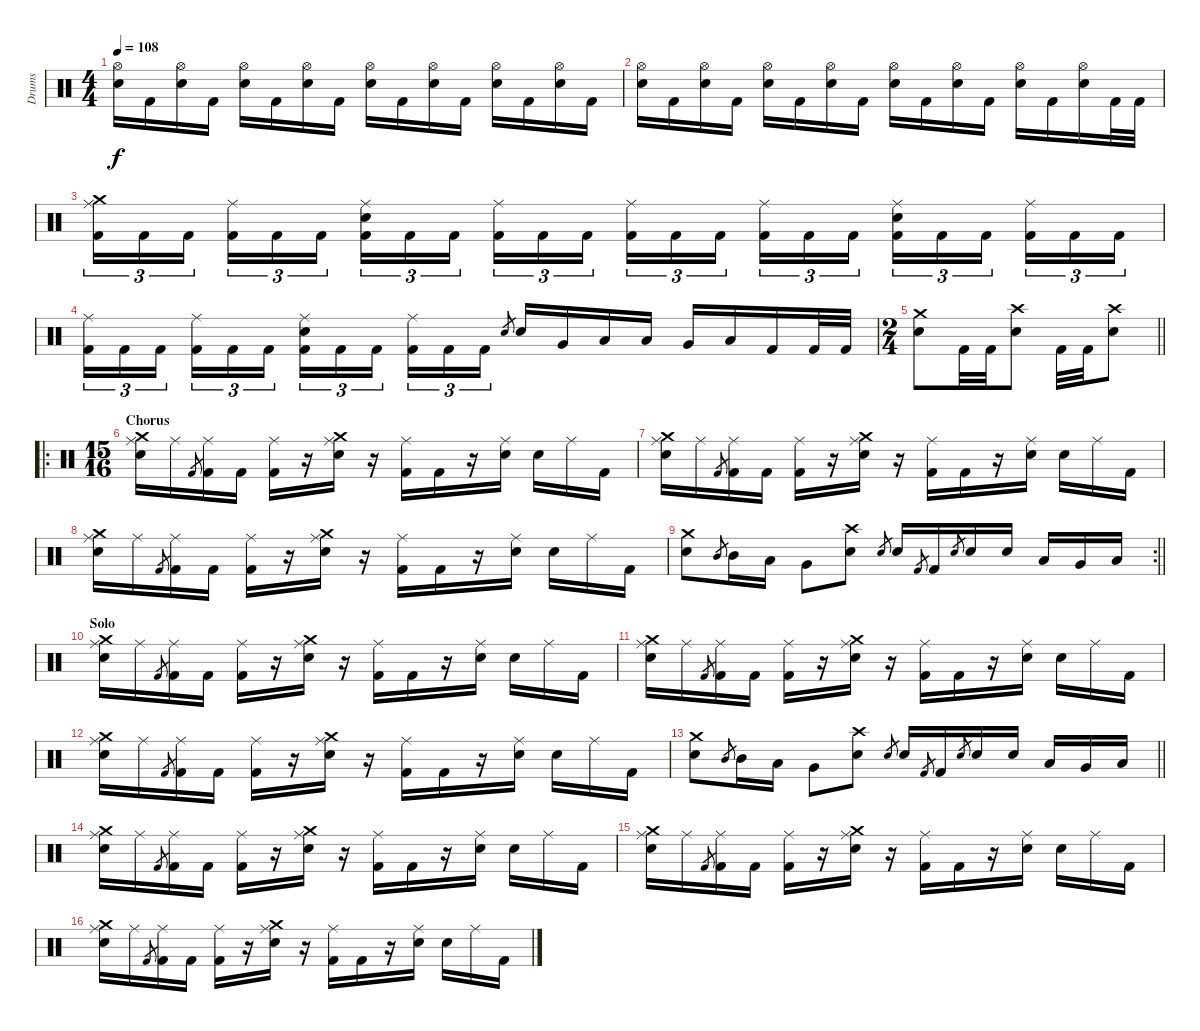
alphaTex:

\track ("Drums" "Drums") {instrument percussion}
\staff {score}
\articulation defaults
\ts (4 4)
\tempo 108
\clef neutral
\ks c
("Hi-Hat (open)" "Electric Snare (hit)").16{dy f} "Kick (hit) 2".16 ("Hi-Hat (open)" "Electric Snare (hit)").16 "Kick (hit) 2".16 ("Hi-Hat (open)" "Electric Snare (hit)").16 "Kick (hit) 2".16 ("Hi-Hat (open)" "Electric Snare (hit)").16 "Kick (hit) 2".16 ("Hi-Hat (open)" "Electric Snare (hit)").16 "Kick (hit) 2".16 ("Hi-Hat (open)" "Electric Snare (hit)").16 "Kick (hit) 2".16 ("Hi-Hat (open)" "Electric Snare (hit)").16 "Kick (hit) 2".16 ("Hi-Hat (open)" "Electric Snare (hit)").16 "Kick (hit) 2".16 |
("Hi-Hat (open)" "Electric Snare (hit)").16 "Kick (hit) 2".16 ("Hi-Hat (open)" "Electric Snare (hit)").16 "Kick (hit) 2".16 ("Hi-Hat (open)" "Electric Snare (hit)").16 "Kick (hit) 2".16 ("Hi-Hat (open)" "Electric Snare (hit)").16 "Kick (hit) 2".16 ("Hi-Hat (open)" "Electric Snare (hit)").16 "Kick (hit) 2".16 ("Hi-Hat (open)" "Electric Snare (hit)").16 "Kick (hit) 2".16 ("Hi-Hat (open)" "Electric Snare (hit)").16 "Kick (hit) 2".16 ("Hi-Hat (open)" "Electric Snare (hit)").16 "Kick (hit) 2".32 "Kick (hit) 2".32 |
("Crash medium (hit)" "Ride (middle)" "Kick (hit) 2").16{tu (3 2)} "Kick (hit) 2".16{tu (3 2)} "Kick (hit) 2".16{tu (3 2) beam splitsecondary} ("Ride (middle)" "Kick (hit) 2").16{tu (3 2)} "Kick (hit) 2".16{tu (3 2)} "Kick (hit) 2".16{tu (3 2)} ("Ride (middle)" "Electric Snare (hit)" "Kick (hit) 2").16{tu (3 2)} "Kick (hit) 2".16{tu (3 2)} "Kick (hit) 2".16{tu (3 2) beam splitsecondary} ("Ride (middle)" "Kick (hit) 2").16{tu (3 2)} "Kick (hit) 2".16{tu (3 2)} "Kick (hit) 2".16{tu (3 2)} ("Ride (middle)" "Kick (hit) 2").16{tu (3 2)} "Kick (hit) 2".16{tu (3 2)} "Kick (hit) 2".16{tu (3 2) beam splitsecondary} ("Ride (middle)" "Kick (hit) 2").16{tu (3 2)} "Kick (hit) 2".16{tu (3 2)} "Kick (hit) 2".16{tu (3 2)} ("Ride (middle)" "Electric Snare (hit)" "Kick (hit) 2").16{tu (3 2)} "Kick (hit) 2".16{tu (3 2)} "Kick (hit) 2".16{tu (3 2) beam splitsecondary} ("Ride (middle)" "Kick (hit) 2").16{tu (3 2)} "Kick (hit) 2".16{tu (3 2)} "Kick (hit) 2".16{tu (3 2)} |
("Ride (middle)" "Kick (hit) 2").16{tu (3 2)} "Kick (hit) 2".16{tu (3 2)} "Kick (hit) 2".16{tu (3 2) beam splitsecondary} ("Ride (middle)" "Kick (hit) 2").16{tu (3 2)} "Kick (hit) 2".16{tu (3 2)} "Kick (hit) 2".16{tu (3 2)} ("Ride (middle)" "Electric Snare (hit)" "Kick (hit) 2").16{tu (3 2)} "Kick (hit) 2".16{tu (3 2)} "Kick (hit) 2".16{tu (3 2) beam splitsecondary} ("Ride (middle)" "Kick (hit) 2").16{tu (3 2)} "Kick (hit) 2".16{tu (3 2)} "Kick (hit) 2".16{tu (3 2)} "Electric Snare (hit)".8{gr} "Electric Snare (hit)".16 "Very Low Tom (hit)".16 "Low Floor Tom (hit)".16 "Low Tom (hit)".16 "Very Low Tom (hit)".16 "Low Floor Tom (hit)".16 "Kick (hit) 2".16 "Kick (hit) 2".32 "Kick (hit) 2".32 |
\ts (2 4)
\barLineRight lightlight
("Crash medium (hit)" "Electric Snare (hit)").8 "Kick (hit) 2".32 "Kick (hit) 2".32 ("Crash high (hit)" "Electric Snare (hit)").8 "Kick (hit) 2".32 "Kick (hit) 2".32 ("Crash high (hit)" "Electric Snare (hit)").8 |
\ro
\ts (15 16)
\section ("" "Chorus")
("Crash medium (hit)" "Ride (middle)" "Electric Snare (hit)").16 "Ride (middle)".16 "Kick (hit) 2".8{gr} ("Ride (middle)" "Kick (hit) 2").16 "Kick (hit) 2".16 ("Ride (middle)" "Kick (hit) 2").16 r.16 ("Crash medium (hit)" "Ride (middle)" "Electric Snare (hit)").16 r.16 ("Ride (middle)" "Kick (hit) 2").16 "Kick (hit) 2".16 r.16 ("Ride (middle)" "Electric Snare (hit)").16 "Electric Snare (hit)".16 "Ride (middle)".16 "Kick (hit) 2".16 |
("Crash medium (hit)" "Ride (middle)" "Electric Snare (hit)").16 "Ride (middle)".16 "Kick (hit) 2".8{gr} ("Ride (middle)" "Kick (hit) 2").16 "Kick (hit) 2".16 ("Ride (middle)" "Kick (hit) 2").16 r.16 ("Crash medium (hit)" "Ride (middle)" "Electric Snare (hit)").16 r.16 ("Ride (middle)" "Kick (hit) 2").16 "Kick (hit) 2".16 r.16 ("Ride (middle)" "Electric Snare (hit)").16 "Electric Snare (hit)".16 "Ride (middle)".16 "Kick (hit) 2".16 |
("Crash medium (hit)" "Ride (middle)" "Electric Snare (hit)").16 "Ride (middle)".16 "Kick (hit) 2".8{gr} ("Ride (middle)" "Kick (hit) 2").16 "Kick (hit) 2".16 ("Ride (middle)" "Kick (hit) 2").16 r.16 ("Crash medium (hit)" "Ride (middle)" "Electric Snare (hit)").16 r.16 ("Ride (middle)" "Kick (hit) 2").16 "Kick (hit) 2".16 r.16 ("Ride (middle)" "Electric Snare (hit)").16 "Electric Snare (hit)".16 "Ride (middle)".16 "Kick (hit) 2".16 |
\rc 2
\barLineRight lightlight
("Crash medium (hit)" "Electric Snare (hit)").8 "Mid Tom (hit)".8{gr} "Mid Tom (hit)".16 "Low Tom (hit)".16 "Very Low Tom (hit)".8 ("Crash high (hit)" "Electric Snare (hit)").8 "Electric Snare (hit)".8{gr} "Electric Snare (hit)".16 "Kick (hit) 2".8{gr} "Kick (hit) 2".16 "Electric Snare (hit)".8{gr} "Electric Snare (hit)".16 "Electric Snare (hit)".16 "Low Tom (hit)".16 "Very Low Tom (hit)".16 "Low Floor Tom (hit)".16 |
\section ("" "Solo")
("Crash medium (hit)" "Ride (middle)" "Electric Snare (hit)").16 "Ride (middle)".16 "Kick (hit) 2".8{gr} ("Ride (middle)" "Kick (hit) 2").16 "Kick (hit) 2".16 ("Ride (middle)" "Kick (hit) 2").16 r.16 ("Crash medium (hit)" "Ride (middle)" "Electric Snare (hit)").16 r.16 ("Ride (middle)" "Kick (hit) 2").16 "Kick (hit) 2".16 r.16 ("Ride (middle)" "Electric Snare (hit)").16 "Electric Snare (hit)".16 "Ride (middle)".16 "Kick (hit) 2".16 |
("Crash medium (hit)" "Ride (middle)" "Electric Snare (hit)").16 "Ride (middle)".16 "Kick (hit) 2".8{gr} ("Ride (middle)" "Kick (hit) 2").16 "Kick (hit) 2".16 ("Ride (middle)" "Kick (hit) 2").16 r.16 ("Crash medium (hit)" "Ride (middle)" "Electric Snare (hit)").16 r.16 ("Ride (middle)" "Kick (hit) 2").16 "Kick (hit) 2".16 r.16 ("Ride (middle)" "Electric Snare (hit)").16 "Electric Snare (hit)".16 "Ride (middle)".16 "Kick (hit) 2".16 |
("Crash medium (hit)" "Ride (middle)" "Electric Snare (hit)").16 "Ride (middle)".16 "Kick (hit) 2".8{gr} ("Ride (middle)" "Kick (hit) 2").16 "Kick (hit) 2".16 ("Ride (middle)" "Kick (hit) 2").16 r.16 ("Crash medium (hit)" "Ride (middle)" "Electric Snare (hit)").16 r.16 ("Ride (middle)" "Kick (hit) 2").16 "Kick (hit) 2".16 r.16 ("Ride (middle)" "Electric Snare (hit)").16 "Electric Snare (hit)".16 "Ride (middle)".16 "Kick (hit) 2".16 |
\barLineRight lightlight
("Crash medium (hit)" "Electric Snare (hit)").8 "Mid Tom (hit)".8{gr} "Mid Tom (hit)".16 "Low Tom (hit)".16 "Very Low Tom (hit)".8 ("Crash high (hit)" "Electric Snare (hit)").8 "Electric Snare (hit)".8{gr} "Electric Snare (hit)".16 "Kick (hit) 2".8{gr} "Kick (hit) 2".16 "Electric Snare (hit)".8{gr} "Electric Snare (hit)".16 "Electric Snare (hit)".16 "Low Tom (hit)".16 "Very Low Tom (hit)".16 "Low Floor Tom (hit)".16 |
("Crash medium (hit)" "Ride (middle)" "Electric Snare (hit)").16 "Ride (middle)".16 "Kick (hit) 2".8{gr} ("Ride (middle)" "Kick (hit) 2").16 "Kick (hit) 2".16 ("Ride (middle)" "Kick (hit) 2").16 r.16 ("Crash medium (hit)" "Ride (middle)" "Electric Snare (hit)").16 r.16 ("Ride (middle)" "Kick (hit) 2").16 "Kick (hit) 2".16 r.16 ("Ride (middle)" "Electric Snare (hit)").16 "Electric Snare (hit)".16 "Ride (middle)".16 "Kick (hit) 2".16 |
("Crash medium (hit)" "Ride (middle)" "Electric Snare (hit)").16 "Ride (middle)".16 "Kick (hit) 2".8{gr} ("Ride (middle)" "Kick (hit) 2").16 "Kick (hit) 2".16 ("Ride (middle)" "Kick (hit) 2").16 r.16 ("Crash medium (hit)" "Ride (middle)" "Electric Snare (hit)").16 r.16 ("Ride (middle)" "Kick (hit) 2").16 "Kick (hit) 2".16 r.16 ("Ride (middle)" "Electric Snare (hit)").16 "Electric Snare (hit)".16 "Ride (middle)".16 "Kick (hit) 2".16 |
("Crash medium (hit)" "Ride (middle)" "Electric Snare (hit)").16 "Ride (middle)".16 "Kick (hit) 2".8{gr} ("Ride (middle)" "Kick (hit) 2").16 "Kick (hit) 2".16 ("Ride (middle)" "Kick (hit) 2").16 r.16 ("Crash medium (hit)" "Ride (middle)" "Electric Snare (hit)").16 r.16 ("Ride (middle)" "Kick (hit) 2").16 "Kick (hit) 2".16 r.16 ("Ride (middle)" "Electric Snare (hit)").16 "Electric Snare (hit)".16 "Ride (middle)".16 "Kick (hit) 2".16
